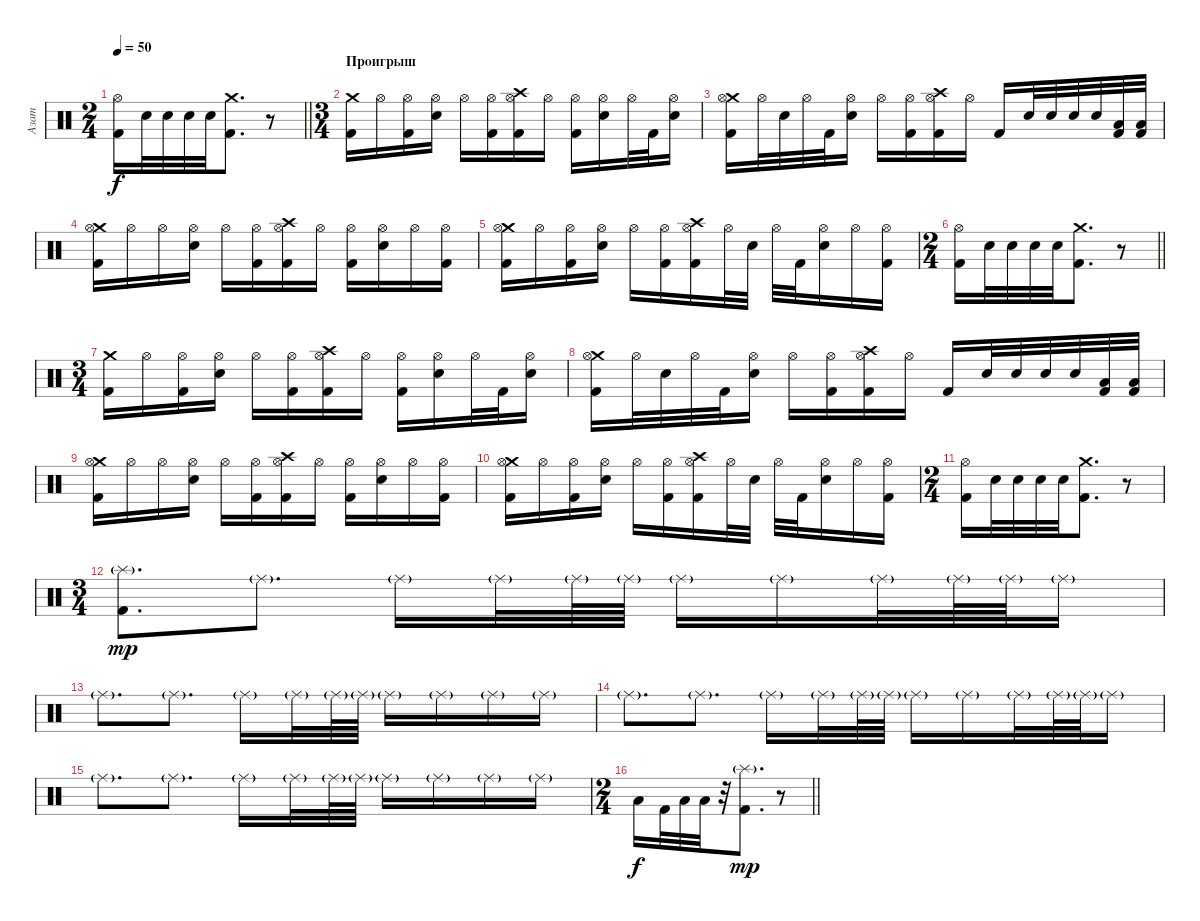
\track ("Азат" "Азат") {instrument percussion}
\staff {score}
\articulation defaults
\ts (2 4)
\tempo 50
\clef neutral
\barLineRight lightlight
\ks c
("Kick (hit) 2" "Hi-Hat (open)").16{dy f} "Electric Snare (hit)".32 "Electric Snare (hit)".32 "Electric Snare (hit)".32 "Electric Snare (hit)".32 ("Kick (hit) 2" "Crash medium (hit)").8{d} r.8 |
\ts (3 4)
\section ("" "Проигрыш")
("Crash medium (hit)" "Kick (hit) 2").16 "Hi-Hat (open)".16 ("Kick (hit) 2" "Hi-Hat (open)").16 ("Electric Snare (hit)" "Hi-Hat (open)").16 "Hi-Hat (open)".16 ("Kick (hit) 2" "Hi-Hat (open)").16 ("Crash high (hit)" "Kick (hit) 2" "Hi-Hat (open)").16 "Hi-Hat (open)".16 ("Kick (hit) 2" "Hi-Hat (open)").16 ("Electric Snare (hit)" "Hi-Hat (open)").16 "Hi-Hat (open)".32 "Kick (hit) 2".32 ("Electric Snare (hit)" "Hi-Hat (open)").16 |
("Crash medium (hit)" "Kick (hit) 2" "Hi-Hat (open)").16 "Hi-Hat (open)".32 "Electric Snare (hit)".32 "Hi-Hat (open)".32 "Kick (hit) 2".32 ("Electric Snare (hit)" "Hi-Hat (open)").16 "Hi-Hat (open)".16 ("Kick (hit) 2" "Hi-Hat (open)").16 ("Crash high (hit)" "Kick (hit) 2" "Hi-Hat (open)").16 "Hi-Hat (open)".16 "Kick (hit) 2".16 "Electric Snare (hit)".32 "Electric Snare (hit)".32 "Electric Snare (hit)".32 "Electric Snare (hit)".32 ("Low Floor Tom (hit)" "Kick (hit) 2").32 ("Low Floor Tom (hit)" "Kick (hit) 2").32 |
("Crash medium (hit)" "Kick (hit) 2" "Hi-Hat (open)").16 "Hi-Hat (open)".16 "Hi-Hat (open)".16 ("Electric Snare (hit)" "Hi-Hat (open)").16 "Hi-Hat (open)".16 ("Kick (hit) 2" "Hi-Hat (open)").16 ("Crash high (hit)" "Kick (hit) 2" "Hi-Hat (open)").16 "Hi-Hat (open)".16 ("Kick (hit) 2" "Hi-Hat (open)").16 ("Electric Snare (hit)" "Hi-Hat (open)").16 "Hi-Hat (open)".16 ("Kick (hit) 2" "Hi-Hat (open)").16 |
("Crash medium (hit)" "Kick (hit) 2" "Hi-Hat (open)").16 "Hi-Hat (open)".16 ("Kick (hit) 2" "Hi-Hat (open)").16 ("Electric Snare (hit)" "Hi-Hat (open)").16 "Hi-Hat (open)".16 ("Kick (hit) 2" "Hi-Hat (open)").16 ("Crash high (hit)" "Kick (hit) 2" "Hi-Hat (open)").16 "Hi-Hat (open)".32 "Electric Snare (hit)".32 "Hi-Hat (open)".32 "Kick (hit) 2".32 ("Electric Snare (hit)" "Hi-Hat (open)").16 "Hi-Hat (open)".16 ("Kick (hit) 2" "Hi-Hat (open)").16 |
\ts (2 4)
\barLineRight lightlight
("Kick (hit) 2" "Hi-Hat (open)").16 "Electric Snare (hit)".32 "Electric Snare (hit)".32 "Electric Snare (hit)".32 "Electric Snare (hit)".32 ("Kick (hit) 2" "Crash medium (hit)").8{d} r.8 |
\ts (3 4)
("Crash medium (hit)" "Kick (hit) 2").16 "Hi-Hat (open)".16 ("Kick (hit) 2" "Hi-Hat (open)").16 ("Electric Snare (hit)" "Hi-Hat (open)").16 "Hi-Hat (open)".16 ("Kick (hit) 2" "Hi-Hat (open)").16 ("Crash high (hit)" "Kick (hit) 2" "Hi-Hat (open)").16 "Hi-Hat (open)".16 ("Kick (hit) 2" "Hi-Hat (open)").16 ("Electric Snare (hit)" "Hi-Hat (open)").16 "Hi-Hat (open)".32 "Kick (hit) 2".32 ("Electric Snare (hit)" "Hi-Hat (open)").16 |
("Crash medium (hit)" "Kick (hit) 2" "Hi-Hat (open)").16 "Hi-Hat (open)".32 "Electric Snare (hit)".32 "Hi-Hat (open)".32 "Kick (hit) 2".32 ("Electric Snare (hit)" "Hi-Hat (open)").16 "Hi-Hat (open)".16 ("Kick (hit) 2" "Hi-Hat (open)").16 ("Crash high (hit)" "Kick (hit) 2" "Hi-Hat (open)").16 "Hi-Hat (open)".16 "Kick (hit) 2".16 "Electric Snare (hit)".32 "Electric Snare (hit)".32 "Electric Snare (hit)".32 "Electric Snare (hit)".32 ("Low Floor Tom (hit)" "Kick (hit) 2").32 ("Low Floor Tom (hit)" "Kick (hit) 2").32 |
("Crash medium (hit)" "Kick (hit) 2" "Hi-Hat (open)").16 "Hi-Hat (open)".16 "Hi-Hat (open)".16 ("Electric Snare (hit)" "Hi-Hat (open)").16 "Hi-Hat (open)".16 ("Kick (hit) 2" "Hi-Hat (open)").16 ("Crash high (hit)" "Kick (hit) 2" "Hi-Hat (open)").16 "Hi-Hat (open)".16 ("Kick (hit) 2" "Hi-Hat (open)").16 ("Electric Snare (hit)" "Hi-Hat (open)").16 "Hi-Hat (open)".16 ("Kick (hit) 2" "Hi-Hat (open)").16 |
("Crash medium (hit)" "Kick (hit) 2" "Hi-Hat (open)").16 "Hi-Hat (open)".16 ("Kick (hit) 2" "Hi-Hat (open)").16 ("Electric Snare (hit)" "Hi-Hat (open)").16 "Hi-Hat (open)".16 ("Kick (hit) 2" "Hi-Hat (open)").16 ("Crash high (hit)" "Kick (hit) 2" "Hi-Hat (open)").16 "Hi-Hat (open)".32 "Electric Snare (hit)".32 "Hi-Hat (open)".32 "Kick (hit) 2".32 ("Electric Snare (hit)" "Hi-Hat (open)").16 "Hi-Hat (open)".16 ("Kick (hit) 2" "Hi-Hat (open)").16 |
\ts (2 4)
("Kick (hit) 2" "Hi-Hat (open)").16 "Electric Snare (hit)".32 "Electric Snare (hit)".32 "Electric Snare (hit)".32 "Electric Snare (hit)".32 ("Kick (hit) 2" "Crash medium (hit)").8{d} r.8 |
\ts (3 4)
("Kick (hit) 2" "Splash (hit)"{g}).8{d dy mp} "Ride (middle)"{g}.8{d} "Ride (middle)"{g}.16 "Ride (middle)"{g}.32 "Ride (middle)"{g}.64 "Ride (middle)"{g}.64 "Ride (middle)"{g}.16 "Ride (middle)"{g}.16 "Ride (middle)"{g}.32 "Ride (middle)"{g}.64 "Ride (middle)"{g}.64 "Ride (middle)"{g}.16 |
"Ride (middle)"{g}.8{d} "Ride (middle)"{g}.8{d} "Ride (middle)"{g}.16 "Ride (middle)"{g}.32 "Ride (middle)"{g}.64 "Ride (middle)"{g}.64 "Ride (middle)"{g}.16 "Ride (middle)"{g}.16 "Ride (middle)"{g}.16 "Ride (middle)"{g}.16 |
"Ride (middle)"{g}.8{d} "Ride (middle)"{g}.8{d} "Ride (middle)"{g}.16 "Ride (middle)"{g}.32 "Ride (middle)"{g}.64 "Ride (middle)"{g}.64 "Ride (middle)"{g}.16 "Ride (middle)"{g}.16 "Ride (middle)"{g}.32 "Ride (middle)"{g}.64 "Ride (middle)"{g}.64 "Ride (middle)"{g}.16 |
"Ride (middle)"{g}.8{d} "Ride (middle)"{g}.8{d} "Ride (middle)"{g}.16 "Ride (middle)"{g}.32 "Ride (middle)"{g}.64 "Ride (middle)"{g}.64 "Ride (middle)"{g}.16 "Ride (middle)"{g}.16 "Ride (middle)"{g}.16 "Ride (middle)"{g}.16 |
\ts (2 4)
\barLineRight lightlight "Low Tom (hit)".16{dy f} "Kick (hit) 2".32 "Low Floor Tom (hit)".32 "Low Tom (hit)".32
r.32 ("Kick (hit) 2" "Splash (hit)"{g}).8{d dy mp} r.8
